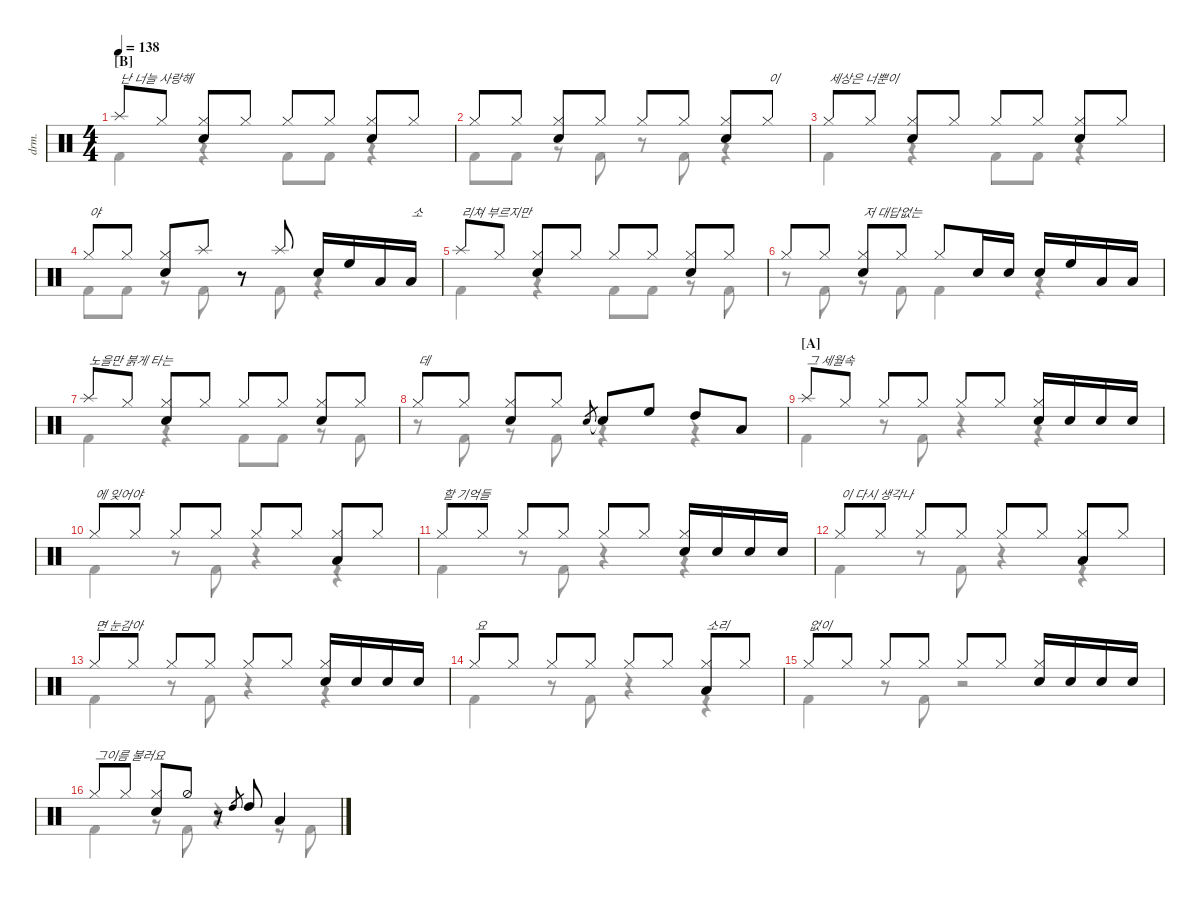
\defaultSystemsLayout 4
\hideDynamics
\bracketExtendMode nobrackets
\track ("Drumkit" "drm.") {instrument percussion}
\staff {score}
\articulation defaults
\voice
\ts (4 4)
\section ("B" "")
\tempo 138
\clef neutral
\ks c "Splash (hit)".8{txt "난 너늘 사랑해" dy mf beam Up} "Hi-Hat (closed)".8{beam Up}
("Hi-Hat (closed)" "Snare (hit) 2").8{beam Up} "Hi-Hat (closed)".8{beam Up} "Hi-Hat (closed)".8{beam Up} "Hi-Hat (closed)".8{beam Up} ("Hi-Hat (closed)" "Snare (hit) 2").8{beam Up} "Hi-Hat (closed)".8{beam Up} |
"Hi-Hat (closed)".8{beam Up} "Hi-Hat (closed)".8{beam Up} ("Hi-Hat (closed)" "Snare (hit) 2").8{beam Up} "Hi-Hat (closed)".8{beam Up} "Hi-Hat (closed)".8{beam Up} "Hi-Hat (closed)".8{beam Up} ("Hi-Hat (closed)" "Snare (hit) 2").8{beam Up} "Hi-Hat (closed)".8{txt "이" beam Up} |
"Hi-Hat (closed)".8{txt "세상은 너뿐이" beam Up} "Hi-Hat (closed)".8{beam Up} ("Hi-Hat (closed)" "Snare (hit) 2").8{beam Up} "Hi-Hat (closed)".8{beam Up} "Hi-Hat (closed)".8{beam Up} "Hi-Hat (closed)".8{beam Up} ("Hi-Hat (closed)" "Snare (hit) 2").8{beam Up} "Hi-Hat (closed)".8{beam Up} |
"Hi-Hat (closed)".8{txt "야" beam Up} "Hi-Hat (closed)".8{beam Up} ("Hi-Hat (closed)" "Snare (hit) 2").8{beam Up} "Splash (hit)".8{beam Up} r.8{beam Up} "Splash (hit)".8{beam Up} "Snare (hit) 2".16{beam Up} "High Floor Tom (hit)".16{beam Up} "Low Tom (hit)".16{beam Up} "Low Tom (hit)".16{txt "소" beam Up} |
"Splash (hit)".8{txt "리쳐 부르지만" beam Up} "Hi-Hat (closed)".8{beam Up} ("Hi-Hat (closed)" "Snare (hit) 2").8{beam Up} "Hi-Hat (closed)".8{beam Up} "Hi-Hat (closed)".8{beam Up} "Hi-Hat (closed)".8{beam Up} ("Hi-Hat (closed)" "Snare (hit) 2").8{beam Up} "Hi-Hat (closed)".8{beam Up} |
"Hi-Hat (closed)".8{beam Up} "Hi-Hat (closed)".8{beam Up} ("Hi-Hat (closed)" "Snare (hit) 2").8{txt "저 대답없는" beam Up} "Hi-Hat (closed)".8{beam Up} "Hi-Hat (closed)".8{beam Up} "Snare (hit) 2".16{beam Up} "Snare (hit) 2".16{beam Up} "Snare (hit) 2".16{beam Up} "High Floor Tom (hit)".16{beam Up} "Low Tom (hit)".16{beam Up} "Low Tom (hit)".16{beam Up} |
"Splash (hit)".8{txt "노을만 붉게 타는" beam Up} "Hi-Hat (closed)".8{beam Up} ("Hi-Hat (closed)" "Snare (hit) 2").8{beam Up} "Hi-Hat (closed)".8{beam Up} "Hi-Hat (closed)".8{beam Up} "Hi-Hat (closed)".8{beam Up} ("Hi-Hat (closed)" "Snare (hit) 2").8{beam Up} "Hi-Hat (closed)".8{beam Up} |
"Hi-Hat (closed)".8{txt "데" beam Up} "Hi-Hat (closed)".8{beam Up} ("Hi-Hat (closed)" "Snare (hit) 2").8{beam Up} "Hi-Hat (closed)".8{beam Up} "Snare (hit) 2".8{gr beam Up} "Snare (hit) 2"{t}.8{beam Up} "High Floor Tom (hit)".8{beam Up} "High Tom (hit)".8{beam Up} "Low Tom (hit)".8{beam Up} |
\section ("A" "")
"Splash (hit)".8{txt "그 세월속" beam Up} "Hi-Hat (closed)".8{beam Up} "Hi-Hat (closed)".8{beam Up} "Hi-Hat (closed)".8{beam Up} "Hi-Hat (closed)".8{beam Up} "Hi-Hat (closed)".8{beam Up} ("Hi-Hat (closed)" "Snare (hit) 2").16{beam Up} "Snare (hit) 2".16{beam Up} "Snare (hit) 2".16{beam Up} "Snare (hit) 2".16{beam Up} |
"Hi-Hat (closed)".8{txt "에 잊어야" beam Up} "Hi-Hat (closed)".8{beam Up} "Hi-Hat (closed)".8{beam Up} "Hi-Hat (closed)".8{beam Up} "Hi-Hat (closed)".8{beam Up} "Hi-Hat (closed)".8{beam Up} ("Hi-Hat (closed)" "Low Tom (hit)").8{beam Up} "Hi-Hat (closed)".8{beam Up} |
"Hi-Hat (closed)".8{txt "할 기억들" beam Up} "Hi-Hat (closed)".8{beam Up} "Hi-Hat (closed)".8{beam Up} "Hi-Hat (closed)".8{beam Up} "Hi-Hat (closed)".8{beam Up} "Hi-Hat (closed)".8{beam Up} ("Hi-Hat (closed)" "Snare (hit) 2").16{beam Up} "Snare (hit) 2".16{beam Up} "Snare (hit) 2".16{beam Up} "Snare (hit) 2".16{beam Up} |
"Hi-Hat (closed)".8{txt "이 다시 생각나" beam Up} "Hi-Hat (closed)".8{beam Up} "Hi-Hat (closed)".8{beam Up} "Hi-Hat (closed)".8{beam Up} "Hi-Hat (closed)".8{beam Up} "Hi-Hat (closed)".8{beam Up} ("Hi-Hat (closed)" "Low Tom (hit)").8{beam Up} "Hi-Hat (closed)".8{beam Up} |
"Hi-Hat (closed)".8{txt "면 눈감아" beam Up} "Hi-Hat (closed)".8{beam Up} "Hi-Hat (closed)".8{beam Up} "Hi-Hat (closed)".8{beam Up} "Hi-Hat (closed)".8{beam Up} "Hi-Hat (closed)".8{beam Up} ("Hi-Hat (closed)" "Snare (hit) 2").16{beam Up} "Snare (hit) 2".16{beam Up} "Snare (hit) 2".16{beam Up} "Snare (hit) 2".16{beam Up} |
"Hi-Hat (closed)".8{txt "요 " beam Up} "Hi-Hat (closed)".8{beam Up} "Hi-Hat (closed)".8{beam Up} "Hi-Hat (closed)".8{beam Up} "Hi-Hat (closed)".8{beam Up} "Hi-Hat (closed)".8{beam Up} ("Hi-Hat (closed)" "Low Tom (hit)").8{txt "소리" beam Up} "Hi-Hat (closed)".8{beam Up} |
"Hi-Hat (closed)".8{txt "없이" beam Up} "Hi-Hat (closed)".8{beam Up} "Hi-Hat (closed)".8{beam Up} "Hi-Hat (closed)".8{beam Up} "Hi-Hat (closed)".8{beam Up} "Hi-Hat (closed)".8{beam Up} ("Hi-Hat (closed)" "Snare (hit) 2").16{beam Up} "Snare (hit) 2".16{beam Up} "Snare (hit) 2".16{beam Up} "Snare (hit) 2".16{beam Up} |
"Hi-Hat (closed)".8{txt "그이름 불러요" beam Up} "Hi-Hat (closed)".8{beam Up} ("Hi-Hat (closed)" "Snare (hit) 2").8{beam Up} "Hi-Hat (half)".8{beam Up} r.8{beam Up} "High Tom (hit)".8{gr beam Up} "High Tom (hit)".8{beam Up} "Low Tom (hit)".4{beam Up}
\voice
\clef neutral
\ottava regular
\simile none
\ks c
|
|
|
|
|
|
|
|
|
|
|
|
|
|
|
\voice
\clef neutral
\ottava regular
\simile none
\ks c "Kick (hit) 2".4{dy mf beam Down}
r.4{beam Down} "Kick (hit) 2".8{beam Down} "Kick (hit) 2".8{beam Down} r.4{beam Down} |
"Kick (hit) 2".8{beam Down} "Kick (hit) 2".8{beam Down} r.8{beam Down} "Kick (hit) 2".8{beam Down} r.8{beam Down} "Kick (hit) 2".8{beam Down} r.4{beam Down} |
"Kick (hit) 2".4{beam Down} r.4{beam Down} "Kick (hit) 2".8{beam Down} "Kick (hit) 2".8{beam Down} r.4{beam Down} |
"Kick (hit) 2".8{beam Down} "Kick (hit) 2".8{beam Down} r.8{beam Down} "Kick (hit) 2".8{beam Down} r.8{beam Down} "Kick (hit) 2".8{beam Down} r.4{beam Down} |
"Kick (hit) 2".4{beam Down} r.4{beam Down} "Kick (hit) 2".8{beam Down} "Kick (hit) 2".8{beam Down} r.8{beam Down} "Kick (hit) 2".8{beam Down} |
r.8{beam Down} "Kick (hit) 2".8{beam Down} r.8{beam Down} "Kick (hit) 2".8{beam Down} "Kick (hit) 2".4{beam Down} r.4{beam Down} |
"Kick (hit) 2".4{beam Down} r.4{beam Down} "Kick (hit) 2".8{beam Down} "Kick (hit) 2".8{beam Down} r.8{beam Down} "Kick (hit) 2".8{beam Down} |
r.8{beam Down} "Kick (hit) 2".8{beam Down} r.8{beam Down} "Kick (hit) 2".8{beam Down} r.4{beam Down} r.4{beam Down} |
"Kick (hit) 2".4{beam Down} r.8{beam Down} "Kick (hit) 2".8{beam Down} r.4{beam Down} r.4{beam Down} |
"Kick (hit) 2".4{beam Down} r.8{beam Down} "Kick (hit) 2".8{beam Down} r.4{beam Down} r.4{beam Down} |
"Kick (hit) 2".4{beam Down} r.8{beam Down} "Kick (hit) 2".8{beam Down} r.4{beam Down} r.4{beam Down} |
"Kick (hit) 2".4{beam Down} r.8{beam Down} "Kick (hit) 2".8{beam Down} r.4{beam Down} r.4{beam Down} |
"Kick (hit) 2".4{beam Down} r.8{beam Down} "Kick (hit) 2".8{beam Down} r.4{beam Down} r.4{beam Down} |
"Kick (hit) 2".4{beam Down} r.8{beam Down} "Kick (hit) 2".8{beam Down} r.4{beam Down} r.4{beam Down} |
"Kick (hit) 2".4{beam Down} r.8{beam Down} "Kick (hit) 2".8{beam Down} r.2{beam Down} |
"Kick (hit) 2".4{beam Down} r.8{beam Down} "Kick (hit) 2".8{beam Down} r.4{beam Down} r.8{beam Down} "Kick (hit) 2".8{beam Down}
